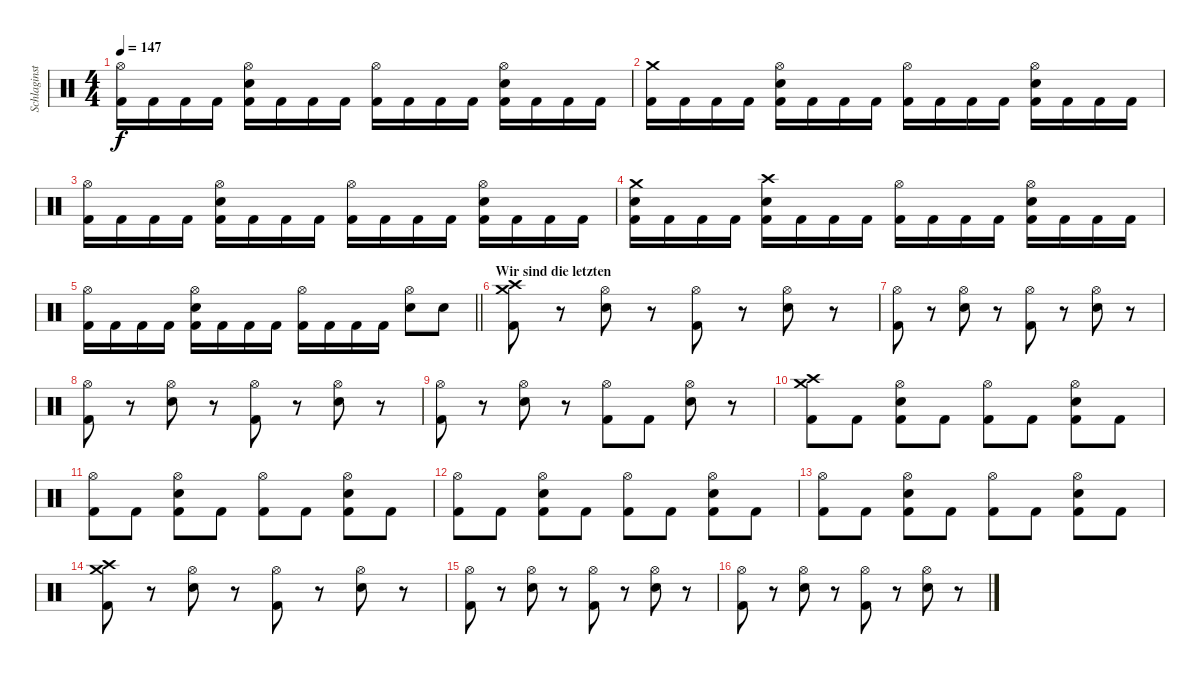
\track ("Schlaginstrumente - Auswahl" "Schlaginst") {instrument percussion}
\staff {score}
\articulation defaults
\ts (4 4)
\tempo 147
\clef neutral
\ks c
("Hi-Hat (open)" "Kick (hit) 2").16{dy f} "Kick (hit) 2".16 "Kick (hit) 2".16 "Kick (hit) 2".16 ("Hi-Hat (open)" "Snare (hit) 2" "Kick (hit) 2").16 "Kick (hit) 2".16 "Kick (hit) 2".16 "Kick (hit) 2".16 ("Hi-Hat (open)" "Kick (hit) 2").16 "Kick (hit) 2".16 "Kick (hit) 2".16 "Kick (hit) 2".16 ("Hi-Hat (open)" "Snare (hit) 2" "Kick (hit) 2").16 "Kick (hit) 2".16 "Kick (hit) 2".16 "Kick (hit) 2".16 |
("Crash medium (hit)" "Kick (hit) 2").16 "Kick (hit) 2".16 "Kick (hit) 2".16 "Kick (hit) 2".16 ("Hi-Hat (open)" "Snare (hit) 2" "Kick (hit) 2").16 "Kick (hit) 2".16 "Kick (hit) 2".16 "Kick (hit) 2".16 ("Hi-Hat (open)" "Kick (hit) 2").16 "Kick (hit) 2".16 "Kick (hit) 2".16 "Kick (hit) 2".16 ("Hi-Hat (open)" "Snare (hit) 2" "Kick (hit) 2").16 "Kick (hit) 2".16 "Kick (hit) 2".16 "Kick (hit) 2".16 |
("Hi-Hat (open)" "Kick (hit) 2").16 "Kick (hit) 2".16 "Kick (hit) 2".16 "Kick (hit) 2".16 ("Hi-Hat (open)" "Snare (hit) 2" "Kick (hit) 2").16 "Kick (hit) 2".16 "Kick (hit) 2".16 "Kick (hit) 2".16 ("Hi-Hat (open)" "Kick (hit) 2").16 "Kick (hit) 2".16 "Kick (hit) 2".16 "Kick (hit) 2".16 ("Hi-Hat (open)" "Snare (hit) 2" "Kick (hit) 2").16 "Kick (hit) 2".16 "Kick (hit) 2".16 "Kick (hit) 2".16 |
("Crash medium (hit)" "Snare (hit) 2" "Kick (hit) 2").16 "Kick (hit) 2".16 "Kick (hit) 2".16 "Kick (hit) 2".16 ("Crash high (hit)" "Snare (hit) 2" "Kick (hit) 2").16 "Kick (hit) 2".16 "Kick (hit) 2".16 "Kick (hit) 2".16 ("Hi-Hat (open)" "Kick (hit) 2").16 "Kick (hit) 2".16 "Kick (hit) 2".16 "Kick (hit) 2".16 ("Hi-Hat (open)" "Snare (hit) 2" "Kick (hit) 2").16 "Kick (hit) 2".16 "Kick (hit) 2".16 "Kick (hit) 2".16 |
\barLineRight lightlight
("Hi-Hat (open)" "Kick (hit) 2").16 "Kick (hit) 2".16 "Kick (hit) 2".16 "Kick (hit) 2".16 ("Hi-Hat (open)" "Snare (hit) 2" "Kick (hit) 2").16 "Kick (hit) 2".16 "Kick (hit) 2".16 "Kick (hit) 2".16 ("Hi-Hat (open)" "Kick (hit) 2").16 "Kick (hit) 2".16 "Kick (hit) 2".16 "Kick (hit) 2".16 ("Hi-Hat (open)" "Snare (hit) 2").8 "Snare (hit) 2".8 |
\section ("" "Wir sind die letzten")
("Crash medium (hit)" "Crash high (hit)" "Kick (hit) 2").8 r.8 ("Hi-Hat (open)" "Snare (hit) 2").8 r.8 ("Hi-Hat (open)" "Kick (hit) 2").8 r.8 ("Hi-Hat (open)" "Snare (hit) 2").8 r.8 |
("Hi-Hat (open)" "Kick (hit) 2").8 r.8 ("Hi-Hat (open)" "Snare (hit) 2").8 r.8 ("Hi-Hat (open)" "Kick (hit) 2").8 r.8 ("Hi-Hat (open)" "Snare (hit) 2").8 r.8 |
("Hi-Hat (open)" "Kick (hit) 2").8 r.8 ("Hi-Hat (open)" "Snare (hit) 2").8 r.8 ("Hi-Hat (open)" "Kick (hit) 2").8 r.8 ("Hi-Hat (open)" "Snare (hit) 2").8 r.8 |
("Hi-Hat (open)" "Kick (hit) 2").8 r.8 ("Hi-Hat (open)" "Snare (hit) 2").8 r.8 ("Hi-Hat (open)" "Kick (hit) 2").8 "Kick (hit) 2".8 ("Hi-Hat (open)" "Snare (hit) 2").8 r.8 |
("Crash medium (hit)" "Crash high (hit)" "Kick (hit) 2").8 "Kick (hit) 2".8 ("Hi-Hat (open)" "Snare (hit) 2" "Kick (hit) 2").8 "Kick (hit) 2".8 ("Hi-Hat (open)" "Kick (hit) 2").8 "Kick (hit) 2".8 ("Hi-Hat (open)" "Snare (hit) 2" "Kick (hit) 2").8 "Kick (hit) 2".8 |
("Hi-Hat (open)" "Kick (hit) 2").8 "Kick (hit) 2".8 ("Hi-Hat (open)" "Snare (hit) 2" "Kick (hit) 2").8 "Kick (hit) 2".8 ("Hi-Hat (open)" "Kick (hit) 2").8 "Kick (hit) 2".8 ("Hi-Hat (open)" "Snare (hit) 2" "Kick (hit) 2").8 "Kick (hit) 2".8 |
("Hi-Hat (open)" "Kick (hit) 2").8 "Kick (hit) 2".8 ("Hi-Hat (open)" "Snare (hit) 2" "Kick (hit) 2").8 "Kick (hit) 2".8 ("Hi-Hat (open)" "Kick (hit) 2").8 "Kick (hit) 2".8 ("Hi-Hat (open)" "Snare (hit) 2" "Kick (hit) 2").8 "Kick (hit) 2".8 |
("Hi-Hat (open)" "Kick (hit) 2").8 "Kick (hit) 2".8 ("Hi-Hat (open)" "Snare (hit) 2" "Kick (hit) 2").8 "Kick (hit) 2".8 ("Hi-Hat (open)" "Kick (hit) 2").8 "Kick (hit) 2".8 ("Hi-Hat (open)" "Snare (hit) 2" "Kick (hit) 2").8 "Kick (hit) 2".8 |
("Crash medium (hit)" "Crash high (hit)" "Kick (hit) 2").8 r.8 ("Hi-Hat (open)" "Snare (hit) 2").8 r.8 ("Hi-Hat (open)" "Kick (hit) 2").8 r.8 ("Hi-Hat (open)" "Snare (hit) 2").8 r.8 |
("Hi-Hat (open)" "Kick (hit) 2").8 r.8 ("Hi-Hat (open)" "Snare (hit) 2").8 r.8 ("Hi-Hat (open)" "Kick (hit) 2").8 r.8 ("Hi-Hat (open)" "Snare (hit) 2").8 r.8 |
("Hi-Hat (open)" "Kick (hit) 2").8 r.8 ("Hi-Hat (open)" "Snare (hit) 2").8 r.8 ("Hi-Hat (open)" "Kick (hit) 2").8 r.8 ("Hi-Hat (open)" "Snare (hit) 2").8 r.8
